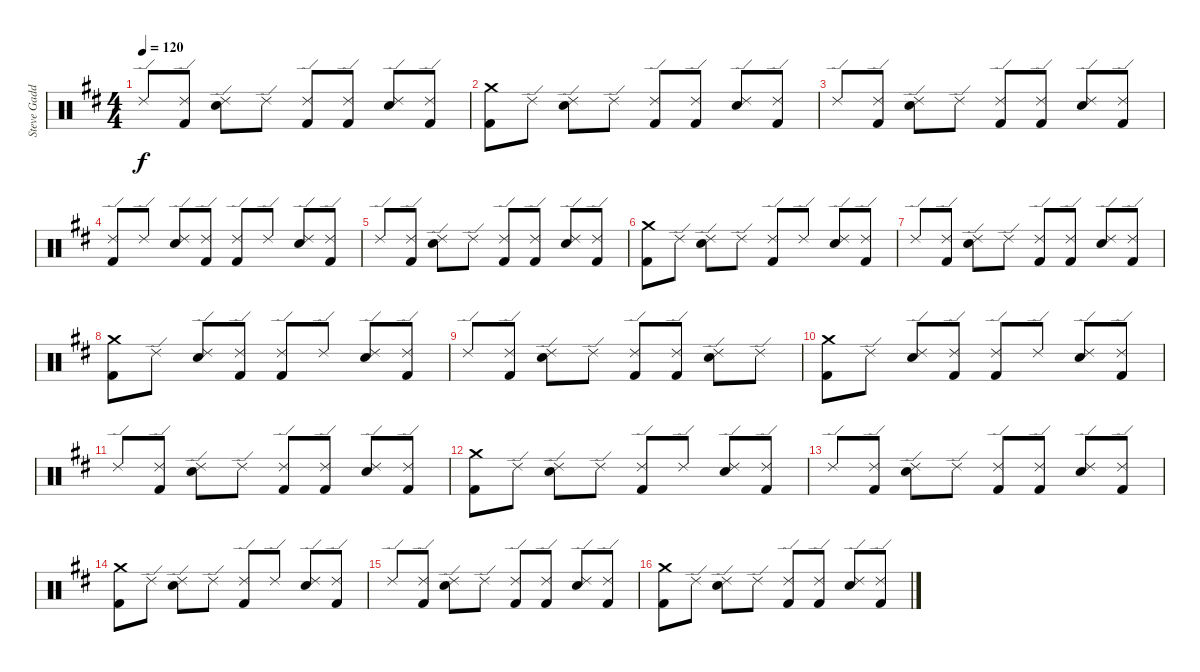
\track ("Steve Gadd Drums" "Steve Gadd") {instrument percussion}
\staff {score}
\articulation defaults
\ts (4 4)
\tempo 120
\clef neutral
\ks d "Ride (edge) 2".8{dy f}
("Ride (edge) 2" "Kick (hit) 2").8 ("Ride (edge) 2" "Snare (hit) 2").8 "Ride (edge) 2".8 ("Ride (edge) 2" "Kick (hit) 2").8 ("Ride (edge) 2" "Kick (hit) 2").8 ("Ride (edge) 2" "Snare (hit) 2").8 ("Ride (edge) 2" "Kick (hit) 2").8 |
("Crash medium (hit)" "Kick (hit) 2").8 "Ride (edge) 2".8 ("Ride (edge) 2" "Snare (hit) 2").8 "Ride (edge) 2".8 ("Ride (edge) 2" "Kick (hit) 2").8 ("Ride (edge) 2" "Kick (hit) 2").8 ("Ride (edge) 2" "Snare (hit) 2").8 ("Ride (edge) 2" "Kick (hit) 2").8 |
"Ride (edge) 2".8 ("Ride (edge) 2" "Kick (hit) 2").8 ("Ride (edge) 2" "Snare (hit) 2").8 "Ride (edge) 2".8 ("Ride (edge) 2" "Kick (hit) 2").8 ("Ride (edge) 2" "Kick (hit) 2").8 ("Ride (edge) 2" "Snare (hit) 2").8 ("Ride (edge) 2" "Kick (hit) 2").8 |
("Ride (edge) 2" "Kick (hit) 2").8 "Ride (edge) 2".8 ("Ride (edge) 2" "Snare (hit) 2").8 ("Ride (edge) 2" "Kick (hit) 2").8 ("Ride (edge) 2" "Kick (hit) 2").8 "Ride (edge) 2".8 ("Ride (edge) 2" "Snare (hit) 2").8 ("Ride (edge) 2" "Kick (hit) 2").8 |
"Ride (edge) 2".8 ("Ride (edge) 2" "Kick (hit) 2").8 ("Ride (edge) 2" "Snare (hit) 2").8 "Ride (edge) 2".8 ("Ride (edge) 2" "Kick (hit) 2").8 ("Ride (edge) 2" "Kick (hit) 2").8 ("Ride (edge) 2" "Snare (hit) 2").8 ("Ride (edge) 2" "Kick (hit) 2").8 |
("Crash medium (hit)" "Kick (hit) 2").8 "Ride (edge) 2".8 ("Ride (edge) 2" "Snare (hit) 2").8 "Ride (edge) 2".8 ("Ride (edge) 2" "Kick (hit) 2").8 "Ride (edge) 2".8 ("Ride (edge) 2" "Snare (hit) 2").8 ("Ride (edge) 2" "Kick (hit) 2").8 |
"Ride (edge) 2".8 ("Ride (edge) 2" "Kick (hit) 2").8 ("Ride (edge) 2" "Snare (hit) 2").8 "Ride (edge) 2".8 ("Ride (edge) 2" "Kick (hit) 2").8 ("Ride (edge) 2" "Kick (hit) 2").8 ("Ride (edge) 2" "Snare (hit) 2").8 ("Ride (edge) 2" "Kick (hit) 2").8 |
("Crash medium (hit)" "Kick (hit) 2").8 "Ride (edge) 2".8 ("Ride (edge) 2" "Snare (hit) 2").8 ("Ride (edge) 2" "Kick (hit) 2").8 ("Ride (edge) 2" "Kick (hit) 2").8 "Ride (edge) 2".8 ("Ride (edge) 2" "Snare (hit) 2").8 ("Ride (edge) 2" "Kick (hit) 2").8 |
"Ride (edge) 2".8 ("Ride (edge) 2" "Kick (hit) 2").8 ("Ride (edge) 2" "Snare (hit) 2").8 "Ride (edge) 2".8 ("Ride (edge) 2" "Kick (hit) 2").8 ("Ride (edge) 2" "Kick (hit) 2").8 ("Ride (edge) 2" "Snare (hit) 2").8 "Ride (edge) 2".8 |
("Crash medium (hit)" "Kick (hit) 2").8 "Ride (edge) 2".8 ("Ride (edge) 2" "Snare (hit) 2").8 ("Ride (edge) 2" "Kick (hit) 2").8 ("Ride (edge) 2" "Kick (hit) 2").8 "Ride (edge) 2".8 ("Ride (edge) 2" "Snare (hit) 2").8 ("Ride (edge) 2" "Kick (hit) 2").8 |
"Ride (edge) 2".8 ("Ride (edge) 2" "Kick (hit) 2").8 ("Ride (edge) 2" "Snare (hit) 2").8 "Ride (edge) 2".8 ("Ride (edge) 2" "Kick (hit) 2").8 ("Ride (edge) 2" "Kick (hit) 2").8 ("Ride (edge) 2" "Snare (hit) 2").8 ("Ride (edge) 2" "Kick (hit) 2").8 |
("Crash medium (hit)" "Kick (hit) 2").8 "Ride (edge) 2".8 ("Ride (edge) 2" "Snare (hit) 2").8 "Ride (edge) 2".8 ("Ride (edge) 2" "Kick (hit) 2").8 "Ride (edge) 2".8 ("Ride (edge) 2" "Snare (hit) 2").8 ("Ride (edge) 2" "Kick (hit) 2").8 |
"Ride (edge) 2".8 ("Ride (edge) 2" "Kick (hit) 2").8 ("Ride (edge) 2" "Snare (hit) 2").8 "Ride (edge) 2".8 ("Ride (edge) 2" "Kick (hit) 2").8 ("Ride (edge) 2" "Kick (hit) 2").8 ("Ride (edge) 2" "Snare (hit) 2").8 ("Ride (edge) 2" "Kick (hit) 2").8 |
("Crash medium (hit)" "Kick (hit) 2").8 "Ride (edge) 2".8 ("Ride (edge) 2" "Snare (hit) 2").8 "Ride (edge) 2".8 ("Ride (edge) 2" "Kick (hit) 2").8 "Ride (edge) 2".8 ("Ride (edge) 2" "Snare (hit) 2").8 ("Ride (edge) 2" "Kick (hit) 2").8 |
"Ride (edge) 2".8 ("Ride (edge) 2" "Kick (hit) 2").8 ("Ride (edge) 2" "Snare (hit) 2").8 "Ride (edge) 2".8 ("Ride (edge) 2" "Kick (hit) 2").8 ("Ride (edge) 2" "Kick (hit) 2").8 ("Ride (edge) 2" "Snare (hit) 2").8 ("Ride (edge) 2" "Kick (hit) 2").8 |
("Crash medium (hit)" "Kick (hit) 2").8 "Ride (edge) 2".8 ("Ride (edge) 2" "Snare (hit) 2").8 "Ride (edge) 2".8 ("Ride (edge) 2" "Kick (hit) 2").8 ("Ride (edge) 2" "Kick (hit) 2").8 ("Ride (edge) 2" "Snare (hit) 2").8 ("Ride (edge) 2" "Kick (hit) 2").8
